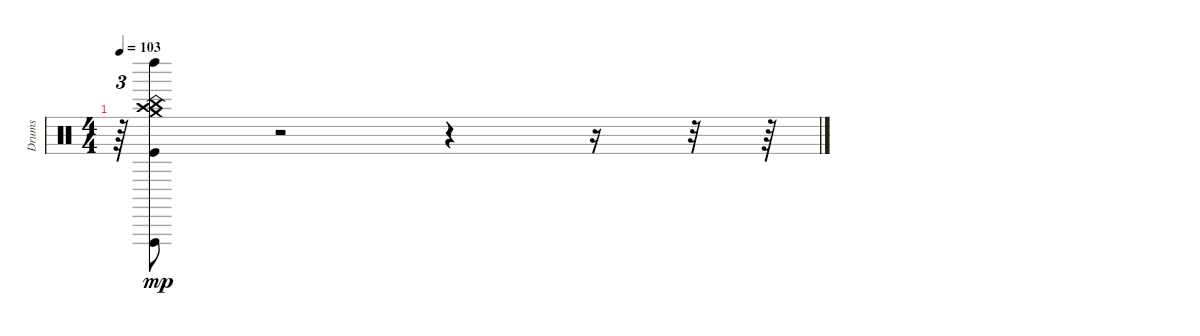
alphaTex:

\track ("Drums" "Drums") {instrument percussion}
\staff {score}
\articulation defaults
\ts (4 4)
\tempo 103
\clef neutral
\ks c
r.64{tu (3 2) dy f} ("Left Maraca (hit)" "Crash medium (hit)" "Crash high (hit)" "China (hit)" "Vibraslap (hit)" "Kick (hit)").8{dy mp} r.2 r.4 r.16 r.32 r.64
